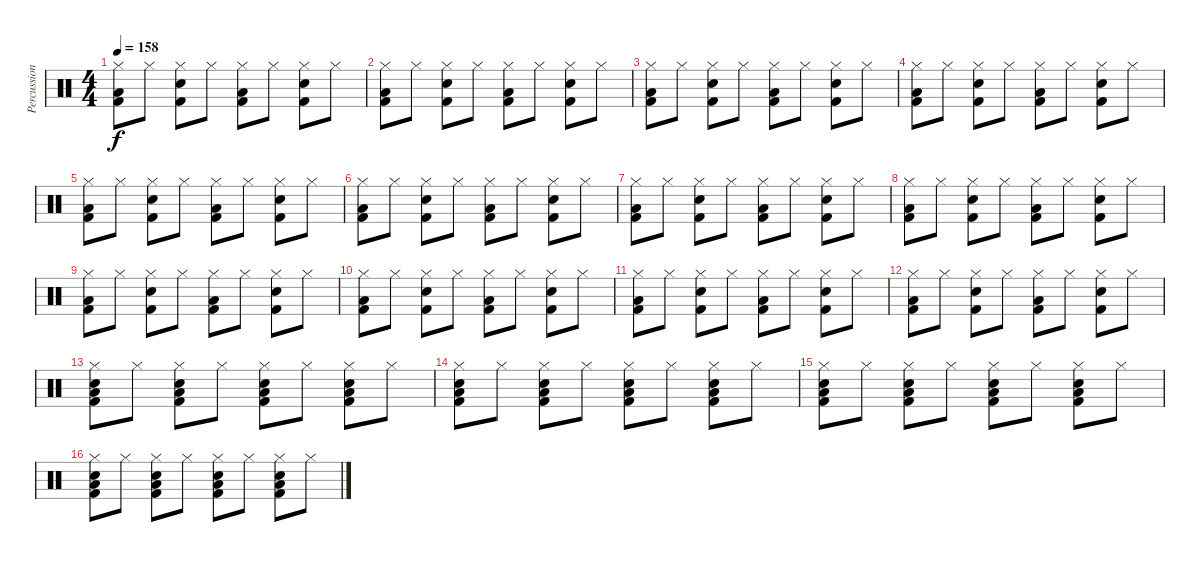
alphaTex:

\track ("Percussions" "Percussion") {instrument percussion}
\staff {score}
\articulation defaults
\ts (4 4)
\tempo 158
\clef neutral
\ks c
("Hi-Hat (closed)" "Low Floor Tom (hit)" "Kick (hit) 2").8{dy f} "Hi-Hat (closed)".8 ("Hi-Hat (closed)" "Snare (hit) 2" "Kick (hit) 2").8 "Hi-Hat (closed)".8 ("Hi-Hat (closed)" "Low Floor Tom (hit)" "Kick (hit) 2").8 "Hi-Hat (closed)".8 ("Hi-Hat (closed)" "Snare (hit) 2" "Kick (hit) 2").8 "Hi-Hat (closed)".8 |
("Hi-Hat (closed)" "Low Floor Tom (hit)" "Kick (hit) 2").8 "Hi-Hat (closed)".8 ("Hi-Hat (closed)" "Snare (hit) 2" "Kick (hit) 2").8 "Hi-Hat (closed)".8 ("Hi-Hat (closed)" "Low Floor Tom (hit)" "Kick (hit) 2").8 "Hi-Hat (closed)".8 ("Hi-Hat (closed)" "Snare (hit) 2" "Kick (hit) 2").8 "Hi-Hat (closed)".8 |
("Hi-Hat (closed)" "Low Floor Tom (hit)" "Kick (hit) 2").8 "Hi-Hat (closed)".8 ("Hi-Hat (closed)" "Snare (hit) 2" "Kick (hit) 2").8 "Hi-Hat (closed)".8 ("Hi-Hat (closed)" "Low Floor Tom (hit)" "Kick (hit) 2").8 "Hi-Hat (closed)".8 ("Hi-Hat (closed)" "Snare (hit) 2" "Kick (hit) 2").8 "Hi-Hat (closed)".8 |
("Hi-Hat (closed)" "Low Floor Tom (hit)" "Kick (hit) 2").8 "Hi-Hat (closed)".8 ("Hi-Hat (closed)" "Snare (hit) 2" "Kick (hit) 2").8 "Hi-Hat (closed)".8 ("Hi-Hat (closed)" "Low Floor Tom (hit)" "Kick (hit) 2").8 "Hi-Hat (closed)".8 ("Hi-Hat (closed)" "Snare (hit) 2" "Kick (hit) 2").8 "Hi-Hat (closed)".8 |
("Hi-Hat (closed)" "Low Floor Tom (hit)" "Kick (hit) 2").8 "Hi-Hat (closed)".8 ("Hi-Hat (closed)" "Snare (hit) 2" "Kick (hit) 2").8 "Hi-Hat (closed)".8 ("Hi-Hat (closed)" "Low Floor Tom (hit)" "Kick (hit) 2").8 "Hi-Hat (closed)".8 ("Hi-Hat (closed)" "Snare (hit) 2" "Kick (hit) 2").8 "Hi-Hat (closed)".8 |
("Hi-Hat (closed)" "Low Floor Tom (hit)" "Kick (hit) 2").8 "Hi-Hat (closed)".8 ("Hi-Hat (closed)" "Snare (hit) 2" "Kick (hit) 2").8 "Hi-Hat (closed)".8 ("Hi-Hat (closed)" "Low Floor Tom (hit)" "Kick (hit) 2").8 "Hi-Hat (closed)".8 ("Hi-Hat (closed)" "Snare (hit) 2" "Kick (hit) 2").8 "Hi-Hat (closed)".8 |
("Hi-Hat (closed)" "Low Floor Tom (hit)" "Kick (hit) 2").8 "Hi-Hat (closed)".8 ("Hi-Hat (closed)" "Snare (hit) 2" "Kick (hit) 2").8 "Hi-Hat (closed)".8 ("Hi-Hat (closed)" "Low Floor Tom (hit)" "Kick (hit) 2").8 "Hi-Hat (closed)".8 ("Hi-Hat (closed)" "Snare (hit) 2" "Kick (hit) 2").8 "Hi-Hat (closed)".8 |
("Hi-Hat (closed)" "Low Floor Tom (hit)" "Kick (hit) 2").8 "Hi-Hat (closed)".8 ("Hi-Hat (closed)" "Snare (hit) 2" "Kick (hit) 2").8 "Hi-Hat (closed)".8 ("Hi-Hat (closed)" "Low Floor Tom (hit)" "Kick (hit) 2").8 "Hi-Hat (closed)".8 ("Hi-Hat (closed)" "Snare (hit) 2" "Kick (hit) 2").8 "Hi-Hat (closed)".8 |
("Hi-Hat (closed)" "Low Floor Tom (hit)" "Kick (hit) 2").8 "Hi-Hat (closed)".8 ("Hi-Hat (closed)" "Snare (hit) 2" "Kick (hit) 2").8 "Hi-Hat (closed)".8 ("Hi-Hat (closed)" "Low Floor Tom (hit)" "Kick (hit) 2").8 "Hi-Hat (closed)".8 ("Hi-Hat (closed)" "Snare (hit) 2" "Kick (hit) 2").8 "Hi-Hat (closed)".8 |
("Hi-Hat (closed)" "Low Floor Tom (hit)" "Kick (hit) 2").8 "Hi-Hat (closed)".8 ("Hi-Hat (closed)" "Snare (hit) 2" "Kick (hit) 2").8 "Hi-Hat (closed)".8 ("Hi-Hat (closed)" "Low Floor Tom (hit)" "Kick (hit) 2").8 "Hi-Hat (closed)".8 ("Hi-Hat (closed)" "Snare (hit) 2" "Kick (hit) 2").8 "Hi-Hat (closed)".8 |
("Hi-Hat (closed)" "Low Floor Tom (hit)" "Kick (hit) 2").8 "Hi-Hat (closed)".8 ("Hi-Hat (closed)" "Snare (hit) 2" "Kick (hit) 2").8 "Hi-Hat (closed)".8 ("Hi-Hat (closed)" "Low Floor Tom (hit)" "Kick (hit) 2").8 "Hi-Hat (closed)".8 ("Hi-Hat (closed)" "Snare (hit) 2" "Kick (hit) 2").8 "Hi-Hat (closed)".8 |
("Hi-Hat (closed)" "Low Floor Tom (hit)" "Kick (hit) 2").8 "Hi-Hat (closed)".8 ("Hi-Hat (closed)" "Snare (hit) 2" "Kick (hit) 2").8 "Hi-Hat (closed)".8 ("Hi-Hat (closed)" "Low Floor Tom (hit)" "Kick (hit) 2").8 "Hi-Hat (closed)".8 ("Hi-Hat (closed)" "Snare (hit) 2" "Kick (hit) 2").8 "Hi-Hat (closed)".8 |
("Hi-Hat (closed)" "Snare (hit) 2" "Low Floor Tom (hit)" "Kick (hit) 2").8 "Hi-Hat (closed)".8 ("Hi-Hat (closed)" "Snare (hit) 2" "Low Floor Tom (hit)" "Kick (hit) 2").8 "Hi-Hat (closed)".8 ("Hi-Hat (closed)" "Snare (hit) 2" "Low Floor Tom (hit)" "Kick (hit) 2").8 "Hi-Hat (closed)".8 ("Hi-Hat (closed)" "Snare (hit) 2" "Low Floor Tom (hit)" "Kick (hit) 2").8 "Hi-Hat (closed)".8 |
("Hi-Hat (closed)" "Snare (hit) 2" "Low Floor Tom (hit)" "Kick (hit) 2").8 "Hi-Hat (closed)".8 ("Hi-Hat (closed)" "Snare (hit) 2" "Low Floor Tom (hit)" "Kick (hit) 2").8 "Hi-Hat (closed)".8 ("Hi-Hat (closed)" "Snare (hit) 2" "Low Floor Tom (hit)" "Kick (hit) 2").8 "Hi-Hat (closed)".8 ("Hi-Hat (closed)" "Snare (hit) 2" "Low Floor Tom (hit)" "Kick (hit) 2").8 "Hi-Hat (closed)".8 |
("Hi-Hat (closed)" "Snare (hit) 2" "Low Floor Tom (hit)" "Kick (hit) 2").8 "Hi-Hat (closed)".8 ("Hi-Hat (closed)" "Snare (hit) 2" "Low Floor Tom (hit)" "Kick (hit) 2").8 "Hi-Hat (closed)".8 ("Hi-Hat (closed)" "Snare (hit) 2" "Low Floor Tom (hit)" "Kick (hit) 2").8 "Hi-Hat (closed)".8 ("Hi-Hat (closed)" "Snare (hit) 2" "Low Floor Tom (hit)" "Kick (hit) 2").8 "Hi-Hat (closed)".8 |
("Hi-Hat (closed)" "Snare (hit) 2" "Low Floor Tom (hit)" "Kick (hit) 2").8 "Hi-Hat (closed)".8 ("Hi-Hat (closed)" "Snare (hit) 2" "Low Floor Tom (hit)" "Kick (hit) 2").8 "Hi-Hat (closed)".8 ("Hi-Hat (closed)" "Snare (hit) 2" "Low Floor Tom (hit)" "Kick (hit) 2").8 "Hi-Hat (closed)".8 ("Hi-Hat (closed)" "Snare (hit) 2" "Low Floor Tom (hit)" "Kick (hit) 2").8 "Hi-Hat (closed)".8
